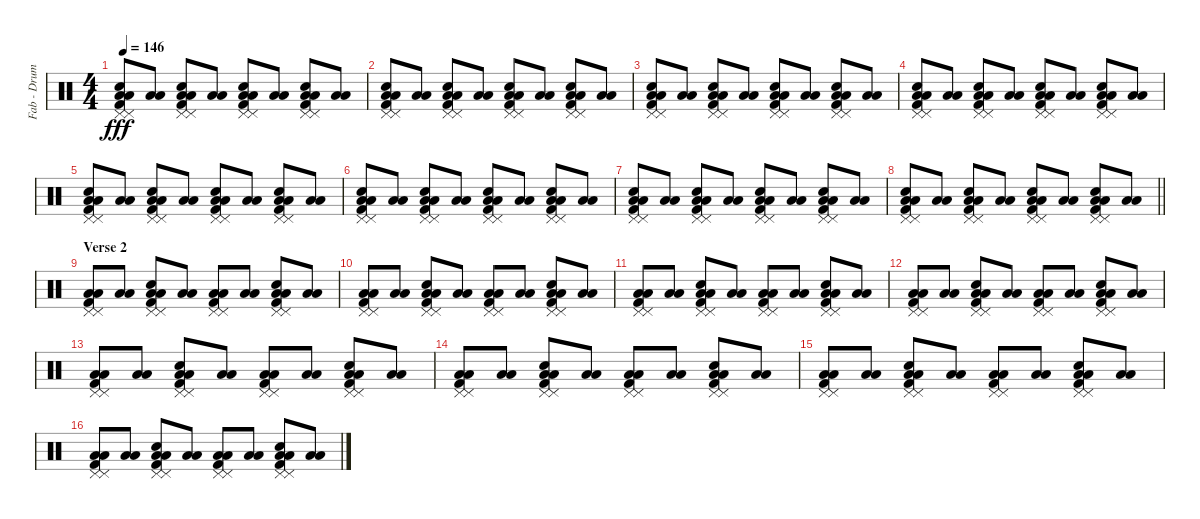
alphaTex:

\track ("Fab - Drums MIDI" "Fab - Drum") {instrument percussion}
\staff {score}
\articulation defaults
\ts (4 4)
\tempo 146
\clef neutral
\ks c
("Low Floor Tom (hit)" "Pedal Hi-Hat (hit)" "Snare (hit) 2" "Kick (hit) 2" "Pedal Hi-Hat (hit)" "Low Floor Tom (hit)").8{dy fff} ("Low Floor Tom (hit)" "Low Floor Tom (hit)").8 ("Low Floor Tom (hit)" "Pedal Hi-Hat (hit)" "Snare (hit) 2" "Kick (hit) 2" "Pedal Hi-Hat (hit)" "Low Floor Tom (hit)").8 ("Low Floor Tom (hit)" "Low Floor Tom (hit)").8 ("Low Floor Tom (hit)" "Pedal Hi-Hat (hit)" "Snare (hit) 2" "Kick (hit) 2" "Pedal Hi-Hat (hit)" "Low Floor Tom (hit)").8 ("Low Floor Tom (hit)" "Low Floor Tom (hit)").8 ("Low Floor Tom (hit)" "Pedal Hi-Hat (hit)" "Snare (hit) 2" "Kick (hit) 2" "Pedal Hi-Hat (hit)" "Low Floor Tom (hit)").8 ("Low Floor Tom (hit)" "Low Floor Tom (hit)").8 |
("Low Floor Tom (hit)" "Pedal Hi-Hat (hit)" "Snare (hit) 2" "Kick (hit) 2" "Pedal Hi-Hat (hit)" "Low Floor Tom (hit)").8 ("Low Floor Tom (hit)" "Low Floor Tom (hit)").8 ("Low Floor Tom (hit)" "Pedal Hi-Hat (hit)" "Snare (hit) 2" "Kick (hit) 2" "Pedal Hi-Hat (hit)" "Low Floor Tom (hit)").8 ("Low Floor Tom (hit)" "Low Floor Tom (hit)").8 ("Low Floor Tom (hit)" "Pedal Hi-Hat (hit)" "Snare (hit) 2" "Kick (hit) 2" "Pedal Hi-Hat (hit)" "Low Floor Tom (hit)").8 ("Low Floor Tom (hit)" "Low Floor Tom (hit)").8 ("Low Floor Tom (hit)" "Pedal Hi-Hat (hit)" "Snare (hit) 2" "Kick (hit) 2" "Pedal Hi-Hat (hit)" "Low Floor Tom (hit)").8 ("Low Floor Tom (hit)" "Low Floor Tom (hit)").8 |
("Low Floor Tom (hit)" "Pedal Hi-Hat (hit)" "Snare (hit) 2" "Kick (hit) 2" "Pedal Hi-Hat (hit)" "Low Floor Tom (hit)").8 ("Low Floor Tom (hit)" "Low Floor Tom (hit)").8 ("Low Floor Tom (hit)" "Pedal Hi-Hat (hit)" "Snare (hit) 2" "Kick (hit) 2" "Pedal Hi-Hat (hit)" "Low Floor Tom (hit)").8 ("Low Floor Tom (hit)" "Low Floor Tom (hit)").8 ("Low Floor Tom (hit)" "Pedal Hi-Hat (hit)" "Snare (hit) 2" "Kick (hit) 2" "Pedal Hi-Hat (hit)" "Low Floor Tom (hit)").8 ("Low Floor Tom (hit)" "Low Floor Tom (hit)").8 ("Low Floor Tom (hit)" "Pedal Hi-Hat (hit)" "Snare (hit) 2" "Kick (hit) 2" "Pedal Hi-Hat (hit)" "Low Floor Tom (hit)").8 ("Low Floor Tom (hit)" "Low Floor Tom (hit)").8 |
("Low Floor Tom (hit)" "Pedal Hi-Hat (hit)" "Snare (hit) 2" "Kick (hit) 2" "Pedal Hi-Hat (hit)" "Low Floor Tom (hit)").8 ("Low Floor Tom (hit)" "Low Floor Tom (hit)").8 ("Low Floor Tom (hit)" "Pedal Hi-Hat (hit)" "Snare (hit) 2" "Kick (hit) 2" "Pedal Hi-Hat (hit)" "Low Floor Tom (hit)").8 ("Low Floor Tom (hit)" "Low Floor Tom (hit)").8 ("Low Floor Tom (hit)" "Pedal Hi-Hat (hit)" "Snare (hit) 2" "Kick (hit) 2" "Pedal Hi-Hat (hit)" "Low Floor Tom (hit)").8 ("Low Floor Tom (hit)" "Low Floor Tom (hit)").8 ("Low Floor Tom (hit)" "Pedal Hi-Hat (hit)" "Snare (hit) 2" "Kick (hit) 2" "Pedal Hi-Hat (hit)" "Low Floor Tom (hit)").8 ("Low Floor Tom (hit)" "Low Floor Tom (hit)").8 |
("Low Floor Tom (hit)" "Pedal Hi-Hat (hit)" "Snare (hit) 2" "Kick (hit) 2" "Pedal Hi-Hat (hit)" "Low Floor Tom (hit)").8 ("Low Floor Tom (hit)" "Low Floor Tom (hit)").8 ("Low Floor Tom (hit)" "Pedal Hi-Hat (hit)" "Snare (hit) 2" "Kick (hit) 2" "Pedal Hi-Hat (hit)" "Low Floor Tom (hit)").8 ("Low Floor Tom (hit)" "Low Floor Tom (hit)").8 ("Low Floor Tom (hit)" "Pedal Hi-Hat (hit)" "Snare (hit) 2" "Kick (hit) 2" "Pedal Hi-Hat (hit)" "Low Floor Tom (hit)").8 ("Low Floor Tom (hit)" "Low Floor Tom (hit)").8 ("Low Floor Tom (hit)" "Pedal Hi-Hat (hit)" "Snare (hit) 2" "Kick (hit) 2" "Pedal Hi-Hat (hit)" "Low Floor Tom (hit)").8 ("Low Floor Tom (hit)" "Low Floor Tom (hit)").8 |
("Low Floor Tom (hit)" "Pedal Hi-Hat (hit)" "Snare (hit) 2" "Kick (hit) 2" "Pedal Hi-Hat (hit)" "Low Floor Tom (hit)").8 ("Low Floor Tom (hit)" "Low Floor Tom (hit)").8 ("Low Floor Tom (hit)" "Pedal Hi-Hat (hit)" "Snare (hit) 2" "Kick (hit) 2" "Pedal Hi-Hat (hit)" "Low Floor Tom (hit)").8 ("Low Floor Tom (hit)" "Low Floor Tom (hit)").8 ("Low Floor Tom (hit)" "Pedal Hi-Hat (hit)" "Snare (hit) 2" "Kick (hit) 2" "Pedal Hi-Hat (hit)" "Low Floor Tom (hit)").8 ("Low Floor Tom (hit)" "Low Floor Tom (hit)").8 ("Low Floor Tom (hit)" "Pedal Hi-Hat (hit)" "Snare (hit) 2" "Kick (hit) 2" "Pedal Hi-Hat (hit)" "Low Floor Tom (hit)").8 ("Low Floor Tom (hit)" "Low Floor Tom (hit)").8 |
("Low Floor Tom (hit)" "Pedal Hi-Hat (hit)" "Snare (hit) 2" "Kick (hit) 2" "Pedal Hi-Hat (hit)" "Low Floor Tom (hit)").8 ("Low Floor Tom (hit)" "Low Floor Tom (hit)").8 ("Low Floor Tom (hit)" "Pedal Hi-Hat (hit)" "Snare (hit) 2" "Kick (hit) 2" "Pedal Hi-Hat (hit)" "Low Floor Tom (hit)").8 ("Low Floor Tom (hit)" "Low Floor Tom (hit)").8 ("Low Floor Tom (hit)" "Pedal Hi-Hat (hit)" "Snare (hit) 2" "Kick (hit) 2" "Pedal Hi-Hat (hit)" "Low Floor Tom (hit)").8 ("Low Floor Tom (hit)" "Low Floor Tom (hit)").8 ("Low Floor Tom (hit)" "Pedal Hi-Hat (hit)" "Snare (hit) 2" "Kick (hit) 2" "Pedal Hi-Hat (hit)" "Low Floor Tom (hit)").8 ("Low Floor Tom (hit)" "Low Floor Tom (hit)").8 |
\barLineRight lightlight
("Low Floor Tom (hit)" "Pedal Hi-Hat (hit)" "Snare (hit) 2" "Kick (hit) 2" "Pedal Hi-Hat (hit)" "Low Floor Tom (hit)").8 ("Low Floor Tom (hit)" "Low Floor Tom (hit)").8 ("Low Floor Tom (hit)" "Pedal Hi-Hat (hit)" "Snare (hit) 2" "Kick (hit) 2" "Pedal Hi-Hat (hit)" "Low Floor Tom (hit)").8 ("Low Floor Tom (hit)" "Low Floor Tom (hit)").8 ("Low Floor Tom (hit)" "Pedal Hi-Hat (hit)" "Snare (hit) 2" "Kick (hit) 2" "Pedal Hi-Hat (hit)" "Low Floor Tom (hit)").8 ("Low Floor Tom (hit)" "Low Floor Tom (hit)").8 ("Low Floor Tom (hit)" "Pedal Hi-Hat (hit)" "Snare (hit) 2" "Kick (hit) 2" "Pedal Hi-Hat (hit)" "Low Floor Tom (hit)").8 ("Low Floor Tom (hit)" "Low Floor Tom (hit)").8 |
\section ("" "Verse 2")
("Low Floor Tom (hit)" "Pedal Hi-Hat (hit)" "Kick (hit) 2" "Pedal Hi-Hat (hit)" "Low Floor Tom (hit)").8 ("Low Floor Tom (hit)" "Low Floor Tom (hit)").8 ("Low Floor Tom (hit)" "Pedal Hi-Hat (hit)" "Snare (hit) 2" "Kick (hit) 2" "Pedal Hi-Hat (hit)" "Low Floor Tom (hit)").8 ("Low Floor Tom (hit)" "Low Floor Tom (hit)").8 ("Low Floor Tom (hit)" "Pedal Hi-Hat (hit)" "Kick (hit) 2" "Pedal Hi-Hat (hit)" "Low Floor Tom (hit)").8 ("Low Floor Tom (hit)" "Low Floor Tom (hit)").8 ("Low Floor Tom (hit)" "Pedal Hi-Hat (hit)" "Snare (hit) 2" "Kick (hit) 2" "Pedal Hi-Hat (hit)" "Low Floor Tom (hit)").8 ("Low Floor Tom (hit)" "Low Floor Tom (hit)").8 |
("Low Floor Tom (hit)" "Pedal Hi-Hat (hit)" "Kick (hit) 2" "Pedal Hi-Hat (hit)" "Low Floor Tom (hit)").8 ("Low Floor Tom (hit)" "Low Floor Tom (hit)").8 ("Low Floor Tom (hit)" "Pedal Hi-Hat (hit)" "Snare (hit) 2" "Kick (hit) 2" "Pedal Hi-Hat (hit)" "Low Floor Tom (hit)").8 ("Low Floor Tom (hit)" "Low Floor Tom (hit)").8 ("Low Floor Tom (hit)" "Pedal Hi-Hat (hit)" "Kick (hit) 2" "Pedal Hi-Hat (hit)" "Low Floor Tom (hit)").8 ("Low Floor Tom (hit)" "Low Floor Tom (hit)").8 ("Low Floor Tom (hit)" "Pedal Hi-Hat (hit)" "Snare (hit) 2" "Kick (hit) 2" "Pedal Hi-Hat (hit)" "Low Floor Tom (hit)").8 ("Low Floor Tom (hit)" "Low Floor Tom (hit)").8 |
("Low Floor Tom (hit)" "Pedal Hi-Hat (hit)" "Kick (hit) 2" "Pedal Hi-Hat (hit)" "Low Floor Tom (hit)").8 ("Low Floor Tom (hit)" "Low Floor Tom (hit)").8 ("Low Floor Tom (hit)" "Pedal Hi-Hat (hit)" "Snare (hit) 2" "Kick (hit) 2" "Pedal Hi-Hat (hit)" "Low Floor Tom (hit)").8 ("Low Floor Tom (hit)" "Low Floor Tom (hit)").8 ("Low Floor Tom (hit)" "Pedal Hi-Hat (hit)" "Kick (hit) 2" "Pedal Hi-Hat (hit)" "Low Floor Tom (hit)").8 ("Low Floor Tom (hit)" "Low Floor Tom (hit)").8 ("Low Floor Tom (hit)" "Pedal Hi-Hat (hit)" "Snare (hit) 2" "Kick (hit) 2" "Pedal Hi-Hat (hit)" "Low Floor Tom (hit)").8 ("Low Floor Tom (hit)" "Low Floor Tom (hit)").8 |
("Low Floor Tom (hit)" "Pedal Hi-Hat (hit)" "Kick (hit) 2" "Pedal Hi-Hat (hit)" "Low Floor Tom (hit)").8 ("Low Floor Tom (hit)" "Low Floor Tom (hit)").8 ("Low Floor Tom (hit)" "Pedal Hi-Hat (hit)" "Snare (hit) 2" "Kick (hit) 2" "Pedal Hi-Hat (hit)" "Low Floor Tom (hit)").8 ("Low Floor Tom (hit)" "Low Floor Tom (hit)").8 ("Low Floor Tom (hit)" "Pedal Hi-Hat (hit)" "Kick (hit) 2" "Pedal Hi-Hat (hit)" "Low Floor Tom (hit)").8 ("Low Floor Tom (hit)" "Low Floor Tom (hit)").8 ("Low Floor Tom (hit)" "Pedal Hi-Hat (hit)" "Snare (hit) 2" "Kick (hit) 2" "Pedal Hi-Hat (hit)" "Low Floor Tom (hit)").8 ("Low Floor Tom (hit)" "Low Floor Tom (hit)").8 |
("Low Floor Tom (hit)" "Pedal Hi-Hat (hit)" "Kick (hit) 2" "Pedal Hi-Hat (hit)" "Low Floor Tom (hit)").8 ("Low Floor Tom (hit)" "Low Floor Tom (hit)").8 ("Low Floor Tom (hit)" "Pedal Hi-Hat (hit)" "Snare (hit) 2" "Kick (hit) 2" "Pedal Hi-Hat (hit)" "Low Floor Tom (hit)").8 ("Low Floor Tom (hit)" "Low Floor Tom (hit)").8 ("Low Floor Tom (hit)" "Pedal Hi-Hat (hit)" "Kick (hit) 2" "Pedal Hi-Hat (hit)" "Low Floor Tom (hit)").8 ("Low Floor Tom (hit)" "Low Floor Tom (hit)").8 ("Low Floor Tom (hit)" "Pedal Hi-Hat (hit)" "Snare (hit) 2" "Kick (hit) 2" "Pedal Hi-Hat (hit)" "Low Floor Tom (hit)").8 ("Low Floor Tom (hit)" "Low Floor Tom (hit)").8 |
("Low Floor Tom (hit)" "Pedal Hi-Hat (hit)" "Kick (hit) 2" "Pedal Hi-Hat (hit)" "Low Floor Tom (hit)").8 ("Low Floor Tom (hit)" "Low Floor Tom (hit)").8 ("Low Floor Tom (hit)" "Pedal Hi-Hat (hit)" "Snare (hit) 2" "Kick (hit) 2" "Pedal Hi-Hat (hit)" "Low Floor Tom (hit)").8 ("Low Floor Tom (hit)" "Low Floor Tom (hit)").8 ("Low Floor Tom (hit)" "Pedal Hi-Hat (hit)" "Kick (hit) 2" "Pedal Hi-Hat (hit)" "Low Floor Tom (hit)").8 ("Low Floor Tom (hit)" "Low Floor Tom (hit)").8 ("Low Floor Tom (hit)" "Pedal Hi-Hat (hit)" "Snare (hit) 2" "Kick (hit) 2" "Pedal Hi-Hat (hit)" "Low Floor Tom (hit)").8 ("Low Floor Tom (hit)" "Low Floor Tom (hit)").8 |
("Low Floor Tom (hit)" "Pedal Hi-Hat (hit)" "Kick (hit) 2" "Pedal Hi-Hat (hit)" "Low Floor Tom (hit)").8 ("Low Floor Tom (hit)" "Low Floor Tom (hit)").8 ("Low Floor Tom (hit)" "Pedal Hi-Hat (hit)" "Snare (hit) 2" "Kick (hit) 2" "Pedal Hi-Hat (hit)" "Low Floor Tom (hit)").8 ("Low Floor Tom (hit)" "Low Floor Tom (hit)").8 ("Low Floor Tom (hit)" "Pedal Hi-Hat (hit)" "Kick (hit) 2" "Pedal Hi-Hat (hit)" "Low Floor Tom (hit)").8 ("Low Floor Tom (hit)" "Low Floor Tom (hit)").8 ("Low Floor Tom (hit)" "Pedal Hi-Hat (hit)" "Snare (hit) 2" "Kick (hit) 2" "Pedal Hi-Hat (hit)" "Low Floor Tom (hit)").8 ("Low Floor Tom (hit)" "Low Floor Tom (hit)").8 |
("Low Floor Tom (hit)" "Pedal Hi-Hat (hit)" "Kick (hit) 2" "Pedal Hi-Hat (hit)" "Low Floor Tom (hit)").8 ("Low Floor Tom (hit)" "Low Floor Tom (hit)").8 ("Low Floor Tom (hit)" "Pedal Hi-Hat (hit)" "Snare (hit) 2" "Kick (hit) 2" "Pedal Hi-Hat (hit)" "Low Floor Tom (hit)").8 ("Low Floor Tom (hit)" "Low Floor Tom (hit)").8 ("Low Floor Tom (hit)" "Pedal Hi-Hat (hit)" "Kick (hit) 2" "Pedal Hi-Hat (hit)" "Low Floor Tom (hit)").8 ("Low Floor Tom (hit)" "Low Floor Tom (hit)").8 ("Low Floor Tom (hit)" "Pedal Hi-Hat (hit)" "Snare (hit) 2" "Kick (hit) 2" "Pedal Hi-Hat (hit)" "Low Floor Tom (hit)").8 ("Low Floor Tom (hit)" "Low Floor Tom (hit)").8
